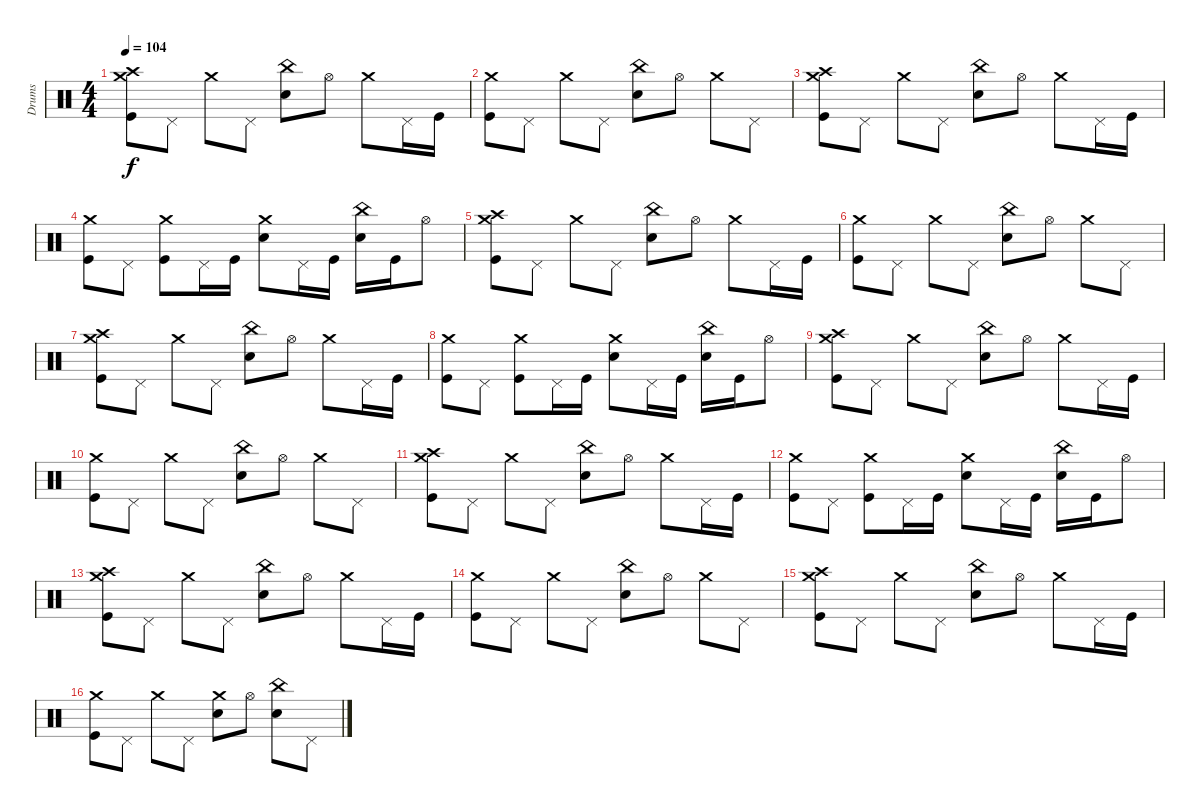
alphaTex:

\track ("Drums" "Drums") {instrument percussion}
\staff {score}
\articulation defaults
\ts (4 4)
\tempo 104
\clef neutral
\ks c
("Crash medium (hit)" "Crash high (hit)" "Kick (hit)").8{dy f} "Pedal Hi-Hat (hit)".8 "Crash medium (hit)".8 "Pedal Hi-Hat (hit)".8 ("China (hit)" "Electric Snare (hit)").8 "Hi-Hat (open)".8 "Crash medium (hit)".8 "Pedal Hi-Hat (hit)".16 "Kick (hit)".16 |
("Crash medium (hit)" "Kick (hit)").8 "Pedal Hi-Hat (hit)".8 "Crash medium (hit)".8 "Pedal Hi-Hat (hit)".8 ("China (hit)" "Electric Snare (hit)").8 "Hi-Hat (open)".8 "Crash medium (hit)".8 "Pedal Hi-Hat (hit)".8 |
("Crash medium (hit)" "Crash high (hit)" "Kick (hit)").8 "Pedal Hi-Hat (hit)".8 "Crash medium (hit)".8 "Pedal Hi-Hat (hit)".8 ("China (hit)" "Electric Snare (hit)").8 "Hi-Hat (open)".8 "Crash medium (hit)".8 "Pedal Hi-Hat (hit)".16 "Kick (hit)".16 |
("Crash medium (hit)" "Kick (hit)").8 "Pedal Hi-Hat (hit)".8 ("Crash medium (hit)" "Kick (hit)").8 "Pedal Hi-Hat (hit)".16 "Kick (hit)".16 ("Crash medium (hit)" "Electric Snare (hit)").8 "Pedal Hi-Hat (hit)".16 "Kick (hit)".16 ("China (hit)" "Electric Snare (hit)").16 "Kick (hit)".16 "Hi-Hat (open)".8 |
("Crash medium (hit)" "Crash high (hit)" "Kick (hit)").8 "Pedal Hi-Hat (hit)".8 "Crash medium (hit)".8 "Pedal Hi-Hat (hit)".8 ("China (hit)" "Electric Snare (hit)").8 "Hi-Hat (open)".8 "Crash medium (hit)".8 "Pedal Hi-Hat (hit)".16 "Kick (hit)".16 |
("Crash medium (hit)" "Kick (hit)").8 "Pedal Hi-Hat (hit)".8 "Crash medium (hit)".8 "Pedal Hi-Hat (hit)".8 ("China (hit)" "Electric Snare (hit)").8 "Hi-Hat (open)".8 "Crash medium (hit)".8 "Pedal Hi-Hat (hit)".8 |
("Crash medium (hit)" "Crash high (hit)" "Kick (hit)").8 "Pedal Hi-Hat (hit)".8 "Crash medium (hit)".8 "Pedal Hi-Hat (hit)".8 ("China (hit)" "Electric Snare (hit)").8 "Hi-Hat (open)".8 "Crash medium (hit)".8 "Pedal Hi-Hat (hit)".16 "Kick (hit)".16 |
("Crash medium (hit)" "Kick (hit)").8 "Pedal Hi-Hat (hit)".8 ("Crash medium (hit)" "Kick (hit)").8 "Pedal Hi-Hat (hit)".16 "Kick (hit)".16 ("Crash medium (hit)" "Electric Snare (hit)").8 "Pedal Hi-Hat (hit)".16 "Kick (hit)".16 ("China (hit)" "Electric Snare (hit)").16 "Kick (hit)".16 "Hi-Hat (open)".8 |
("Crash medium (hit)" "Crash high (hit)" "Kick (hit)").8 "Pedal Hi-Hat (hit)".8 "Crash medium (hit)".8 "Pedal Hi-Hat (hit)".8 ("China (hit)" "Electric Snare (hit)").8 "Hi-Hat (open)".8 "Crash medium (hit)".8 "Pedal Hi-Hat (hit)".16 "Kick (hit)".16 |
("Crash medium (hit)" "Kick (hit)").8 "Pedal Hi-Hat (hit)".8 "Crash medium (hit)".8 "Pedal Hi-Hat (hit)".8 ("China (hit)" "Electric Snare (hit)").8 "Hi-Hat (open)".8 "Crash medium (hit)".8 "Pedal Hi-Hat (hit)".8 |
("Crash medium (hit)" "Crash high (hit)" "Kick (hit)").8 "Pedal Hi-Hat (hit)".8 "Crash medium (hit)".8 "Pedal Hi-Hat (hit)".8 ("China (hit)" "Electric Snare (hit)").8 "Hi-Hat (open)".8 "Crash medium (hit)".8 "Pedal Hi-Hat (hit)".16 "Kick (hit)".16 |
("Crash medium (hit)" "Kick (hit)").8 "Pedal Hi-Hat (hit)".8 ("Crash medium (hit)" "Kick (hit)").8 "Pedal Hi-Hat (hit)".16 "Kick (hit)".16 ("Crash medium (hit)" "Electric Snare (hit)").8 "Pedal Hi-Hat (hit)".16 "Kick (hit)".16 ("China (hit)" "Electric Snare (hit)").16 "Kick (hit)".16 "Hi-Hat (open)".8 |
("Crash medium (hit)" "Crash high (hit)" "Kick (hit)").8 "Pedal Hi-Hat (hit)".8 "Crash medium (hit)".8 "Pedal Hi-Hat (hit)".8 ("China (hit)" "Electric Snare (hit)").8 "Hi-Hat (open)".8 "Crash medium (hit)".8 "Pedal Hi-Hat (hit)".16 "Kick (hit)".16 |
("Crash medium (hit)" "Kick (hit)").8 "Pedal Hi-Hat (hit)".8 "Crash medium (hit)".8 "Pedal Hi-Hat (hit)".8 ("China (hit)" "Electric Snare (hit)").8 "Hi-Hat (open)".8 "Crash medium (hit)".8 "Pedal Hi-Hat (hit)".8 |
("Crash medium (hit)" "Crash high (hit)" "Kick (hit)").8 "Pedal Hi-Hat (hit)".8 "Crash medium (hit)".8 "Pedal Hi-Hat (hit)".8 ("China (hit)" "Electric Snare (hit)").8 "Hi-Hat (open)".8 "Crash medium (hit)".8 "Pedal Hi-Hat (hit)".16 "Kick (hit)".16 |
("Crash medium (hit)" "Kick (hit)").8 "Pedal Hi-Hat (hit)".8 "Crash medium (hit)".8 "Pedal Hi-Hat (hit)".8 ("Crash medium (hit)" "Electric Snare (hit)").8 "Hi-Hat (open)".8 ("China (hit)" "Electric Snare (hit)").8 "Pedal Hi-Hat (hit)".8
